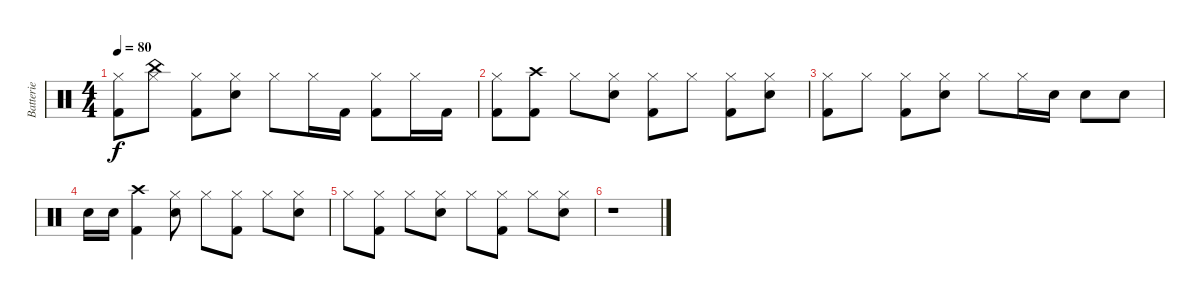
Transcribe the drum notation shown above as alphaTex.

\track ("Batterie" "Batterie") {instrument percussion}
\staff {score}
\articulation defaults
\ts (4 4)
\tempo 80
\clef neutral
\ks c
("Kick (hit) 2" "Hi-Hat (closed)").8{dy f} ("Hi-Hat (closed)" "China (hit)").8 ("Kick (hit) 2" "Hi-Hat (closed)").8 ("Snare (hit) 2" "Hi-Hat (closed)").8 "Hi-Hat (closed)".8 "Hi-Hat (closed)".16 "Kick (hit) 2".16 ("Kick (hit) 2" "Hi-Hat (closed)").8 "Hi-Hat (closed)".16 "Kick (hit) 2".16 |
("Kick (hit) 2" "Hi-Hat (closed)").8 ("Kick (hit) 2" "Crash high (hit)").8 "Hi-Hat (closed)".8 ("Snare (hit) 2" "Hi-Hat (closed)").8 ("Kick (hit) 2" "Hi-Hat (closed)").8 "Hi-Hat (closed)".8 ("Kick (hit) 2" "Hi-Hat (closed)").8 ("Snare (hit) 2" "Hi-Hat (closed)").8 |
("Kick (hit) 2" "Hi-Hat (closed)").8 "Hi-Hat (closed)".8 ("Kick (hit) 2" "Hi-Hat (closed)").8 ("Snare (hit) 2" "Hi-Hat (closed)").8 "Hi-Hat (closed)".8 "Hi-Hat (closed)".16 "Snare (hit) 2".16 "Snare (hit) 2".8 "Snare (hit) 2".8 |
"Snare (hit) 2".16 "Snare (hit) 2".16 ("Kick (hit) 2" "Crash high (hit)").4 ("Snare (hit) 2" "Hi-Hat (closed)").8 "Hi-Hat (closed)".8 ("Kick (hit) 2" "Hi-Hat (closed)").8 "Hi-Hat (closed)".8 ("Snare (hit) 2" "Hi-Hat (closed)").8 |
"Hi-Hat (closed)".8 ("Kick (hit) 2" "Hi-Hat (closed)").8 "Hi-Hat (closed)".8 ("Snare (hit) 2" "Hi-Hat (closed)").8 "Hi-Hat (closed)".8 ("Kick (hit) 2" "Hi-Hat (closed)").8 "Hi-Hat (closed)".8 ("Snare (hit) 2" "Hi-Hat (closed)").8 |
r.1
